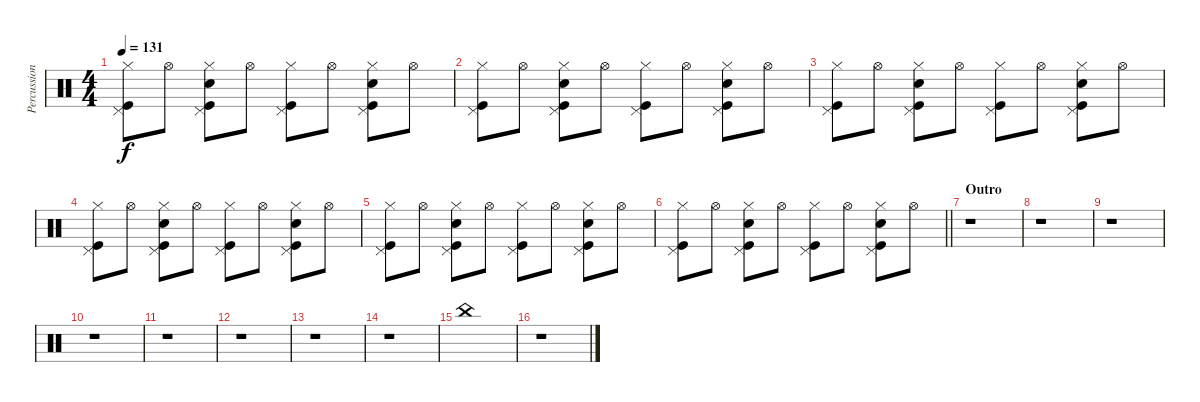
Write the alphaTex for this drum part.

\track ("Percussion II" "Percussion") {instrument percussion}
\staff {score}
\articulation defaults
\ts (4 4)
\tempo 131
\clef neutral
\ks c
("Pedal Hi-Hat (hit)" "Hi-Hat (closed)" "Kick (hit)").8{dy f} "Hi-Hat (open)".8 ("Pedal Hi-Hat (hit)" "Hand Clap (hit)" "Hi-Hat (closed)" "Kick (hit)").8 "Hi-Hat (open)".8 ("Pedal Hi-Hat (hit)" "Hi-Hat (closed)" "Kick (hit)").8 "Hi-Hat (open)".8 ("Pedal Hi-Hat (hit)" "Hand Clap (hit)" "Hi-Hat (closed)" "Kick (hit)").8 "Hi-Hat (open)".8 |
("Pedal Hi-Hat (hit)" "Hi-Hat (closed)" "Kick (hit)").8 "Hi-Hat (open)".8 ("Pedal Hi-Hat (hit)" "Hand Clap (hit)" "Hi-Hat (closed)" "Kick (hit)").8 "Hi-Hat (open)".8 ("Pedal Hi-Hat (hit)" "Hi-Hat (closed)" "Kick (hit)").8 "Hi-Hat (open)".8 ("Pedal Hi-Hat (hit)" "Hand Clap (hit)" "Hi-Hat (closed)" "Kick (hit)").8 "Hi-Hat (open)".8 |
("Pedal Hi-Hat (hit)" "Hi-Hat (closed)" "Kick (hit)").8 "Hi-Hat (open)".8 ("Pedal Hi-Hat (hit)" "Hand Clap (hit)" "Hi-Hat (closed)" "Kick (hit)").8 "Hi-Hat (open)".8 ("Pedal Hi-Hat (hit)" "Hi-Hat (closed)" "Kick (hit)").8 "Hi-Hat (open)".8 ("Pedal Hi-Hat (hit)" "Hand Clap (hit)" "Hi-Hat (closed)" "Kick (hit)").8 "Hi-Hat (open)".8 |
("Pedal Hi-Hat (hit)" "Hi-Hat (closed)" "Kick (hit)").8 "Hi-Hat (open)".8 ("Pedal Hi-Hat (hit)" "Hand Clap (hit)" "Hi-Hat (closed)" "Kick (hit)").8 "Hi-Hat (open)".8 ("Pedal Hi-Hat (hit)" "Hi-Hat (closed)" "Kick (hit)").8 "Hi-Hat (open)".8 ("Pedal Hi-Hat (hit)" "Hand Clap (hit)" "Hi-Hat (closed)" "Kick (hit)").8 "Hi-Hat (open)".8 |
("Pedal Hi-Hat (hit)" "Hi-Hat (closed)" "Kick (hit)").8 "Hi-Hat (open)".8 ("Pedal Hi-Hat (hit)" "Hand Clap (hit)" "Hi-Hat (closed)" "Kick (hit)").8 "Hi-Hat (open)".8 ("Pedal Hi-Hat (hit)" "Hi-Hat (closed)" "Kick (hit)").8 "Hi-Hat (open)".8 ("Pedal Hi-Hat (hit)" "Hand Clap (hit)" "Hi-Hat (closed)" "Kick (hit)").8 "Hi-Hat (open)".8 |
\barLineRight lightlight
("Pedal Hi-Hat (hit)" "Hi-Hat (closed)" "Kick (hit)").8 "Hi-Hat (open)".8 ("Pedal Hi-Hat (hit)" "Hand Clap (hit)" "Hi-Hat (closed)" "Kick (hit)").8 "Hi-Hat (open)".8 ("Pedal Hi-Hat (hit)" "Hi-Hat (closed)" "Kick (hit)").8 "Hi-Hat (open)".8 ("Pedal Hi-Hat (hit)" "Hand Clap (hit)" "Hi-Hat (closed)" "Kick (hit)").8 "Hi-Hat (open)".8 |
\section ("" "Outro")
r.1 |
r.1 |
r.1 |
r.1 |
r.1 |
r.1 |
r.1 |
r.1 |
"China (hit)".1 |
r.1
